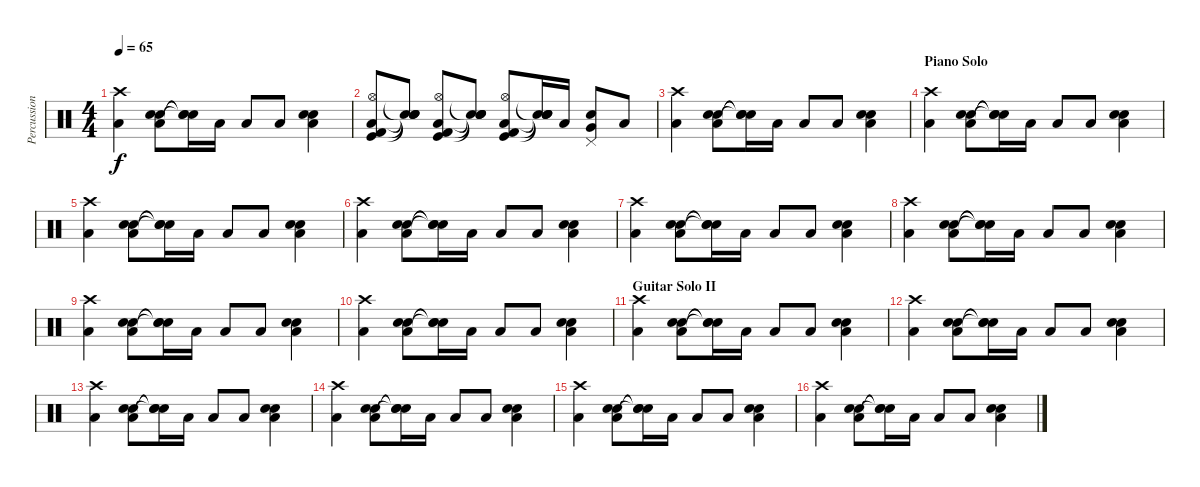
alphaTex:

\track ("Percussion" "Percussion") {instrument percussion}
\staff {score}
\articulation defaults
\ts (4 4)
\tempo 65
\clef neutral
\ks c
("Crash high (hit)" "Low Tom (hit)").4{dy f} ("Snare (hit) 2" "Electric Snare (hit)" "Low Tom (hit)").8 ("Snare (hit)"{t} "Snare (hit)"{t} "Snare (hit)"{t}).16 "Low Tom (hit)".16 "Low Tom (hit)".8 "Low Tom (hit)".8 ("Snare (hit) 2" "Electric Snare (hit)" "Low Tom (hit)").4 |
("Kick (hit) 2" "Hi-Hat (open)" "Low Tom (hit)" "Kick (hit)").8 ("Snare (hit)"{t} "Snare (hit)"{t} "Snare (hit)"{t} "Snare (hit)"{t}).8 ("Kick (hit) 2" "Hi-Hat (open)" "Low Tom (hit)" "Kick (hit)").8 ("Snare (hit)"{t} "Snare (hit)"{t} "Snare (hit)"{t} "Snare (hit)"{t}).8 ("Kick (hit) 2" "Hi-Hat (open)" "Low Tom (hit)" "Kick (hit)").8 ("Snare (hit)"{t} "Snare (hit)"{t} "Snare (hit)"{t} "Snare (hit)"{t}).16 "Low Tom (hit)".16 ("Pedal Hi-Hat (hit)" "Very Low Tom (hit)" "Electric Snare (hit)").8 "Low Tom (hit)".8 |
("Crash high (hit)" "Low Tom (hit)").4 ("Snare (hit) 2" "Electric Snare (hit)" "Low Tom (hit)").8 ("Snare (hit)"{t} "Snare (hit)"{t} "Snare (hit)"{t}).16 "Low Tom (hit)".16 "Low Tom (hit)".8 "Low Tom (hit)".8 ("Snare (hit) 2" "Electric Snare (hit)" "Low Tom (hit)").4 |
\section ("" "Piano Solo")
("Crash high (hit)" "Low Tom (hit)").4 ("Snare (hit) 2" "Electric Snare (hit)" "Low Tom (hit)").8 ("Snare (hit)"{t} "Snare (hit)"{t} "Snare (hit)"{t}).16 "Low Tom (hit)".16 "Low Tom (hit)".8 "Low Tom (hit)".8 ("Snare (hit) 2" "Electric Snare (hit)" "Low Tom (hit)").4 |
("Crash high (hit)" "Low Tom (hit)").4 ("Snare (hit) 2" "Electric Snare (hit)" "Low Tom (hit)").8 ("Snare (hit)"{t} "Snare (hit)"{t} "Snare (hit)"{t}).16 "Low Tom (hit)".16 "Low Tom (hit)".8 "Low Tom (hit)".8 ("Snare (hit) 2" "Electric Snare (hit)" "Low Tom (hit)").4 |
("Crash high (hit)" "Low Tom (hit)").4 ("Snare (hit) 2" "Electric Snare (hit)" "Low Tom (hit)").8 ("Snare (hit)"{t} "Snare (hit)"{t} "Snare (hit)"{t}).16 "Low Tom (hit)".16 "Low Tom (hit)".8 "Low Tom (hit)".8 ("Snare (hit) 2" "Electric Snare (hit)" "Low Tom (hit)").4 |
("Crash high (hit)" "Low Tom (hit)").4 ("Snare (hit) 2" "Electric Snare (hit)" "Low Tom (hit)").8 ("Snare (hit)"{t} "Snare (hit)"{t} "Snare (hit)"{t}).16 "Low Tom (hit)".16 "Low Tom (hit)".8 "Low Tom (hit)".8 ("Snare (hit) 2" "Electric Snare (hit)" "Low Tom (hit)").4 |
("Crash high (hit)" "Low Tom (hit)").4 ("Snare (hit) 2" "Electric Snare (hit)" "Low Tom (hit)").8 ("Snare (hit)"{t} "Snare (hit)"{t} "Snare (hit)"{t}).16 "Low Tom (hit)".16 "Low Tom (hit)".8 "Low Tom (hit)".8 ("Snare (hit) 2" "Electric Snare (hit)" "Low Tom (hit)").4 |
("Crash high (hit)" "Low Tom (hit)").4 ("Snare (hit) 2" "Electric Snare (hit)" "Low Tom (hit)").8 ("Snare (hit)"{t} "Snare (hit)"{t} "Snare (hit)"{t}).16 "Low Tom (hit)".16 "Low Tom (hit)".8 "Low Tom (hit)".8 ("Snare (hit) 2" "Electric Snare (hit)" "Low Tom (hit)").4 |
("Crash high (hit)" "Low Tom (hit)").4 ("Snare (hit) 2" "Electric Snare (hit)" "Low Tom (hit)").8 ("Snare (hit)"{t} "Snare (hit)"{t} "Snare (hit)"{t}).16 "Low Tom (hit)".16 "Low Tom (hit)".8 "Low Tom (hit)".8 ("Snare (hit) 2" "Electric Snare (hit)" "Low Tom (hit)").4 |
\section ("" "Guitar Solo II")
("Crash high (hit)" "Low Tom (hit)").4 ("Snare (hit) 2" "Electric Snare (hit)" "Low Tom (hit)").8 ("Snare (hit)"{t} "Snare (hit)"{t} "Snare (hit)"{t}).16 "Low Tom (hit)".16 "Low Tom (hit)".8 "Low Tom (hit)".8 ("Snare (hit) 2" "Electric Snare (hit)" "Low Tom (hit)").4 |
("Crash high (hit)" "Low Tom (hit)").4 ("Snare (hit) 2" "Electric Snare (hit)" "Low Tom (hit)").8 ("Snare (hit)"{t} "Snare (hit)"{t} "Snare (hit)"{t}).16 "Low Tom (hit)".16 "Low Tom (hit)".8 "Low Tom (hit)".8 ("Snare (hit) 2" "Electric Snare (hit)" "Low Tom (hit)").4 |
("Crash high (hit)" "Low Tom (hit)").4 ("Snare (hit) 2" "Electric Snare (hit)" "Low Tom (hit)").8 ("Snare (hit)"{t} "Snare (hit)"{t} "Snare (hit)"{t}).16 "Low Tom (hit)".16 "Low Tom (hit)".8 "Low Tom (hit)".8 ("Snare (hit) 2" "Electric Snare (hit)" "Low Tom (hit)").4 |
("Crash high (hit)" "Low Tom (hit)").4 ("Snare (hit) 2" "Electric Snare (hit)" "Low Tom (hit)").8 ("Snare (hit)"{t} "Snare (hit)"{t} "Snare (hit)"{t}).16 "Low Tom (hit)".16 "Low Tom (hit)".8 "Low Tom (hit)".8 ("Snare (hit) 2" "Electric Snare (hit)" "Low Tom (hit)").4 |
("Crash high (hit)" "Low Tom (hit)").4 ("Snare (hit) 2" "Electric Snare (hit)" "Low Tom (hit)").8 ("Snare (hit)"{t} "Snare (hit)"{t} "Snare (hit)"{t}).16 "Low Tom (hit)".16 "Low Tom (hit)".8 "Low Tom (hit)".8 ("Snare (hit) 2" "Electric Snare (hit)" "Low Tom (hit)").4 |
("Crash high (hit)" "Low Tom (hit)").4 ("Snare (hit) 2" "Electric Snare (hit)" "Low Tom (hit)").8 ("Snare (hit)"{t} "Snare (hit)"{t} "Snare (hit)"{t}).16 "Low Tom (hit)".16 "Low Tom (hit)".8 "Low Tom (hit)".8 ("Snare (hit) 2" "Electric Snare (hit)" "Low Tom (hit)").4
